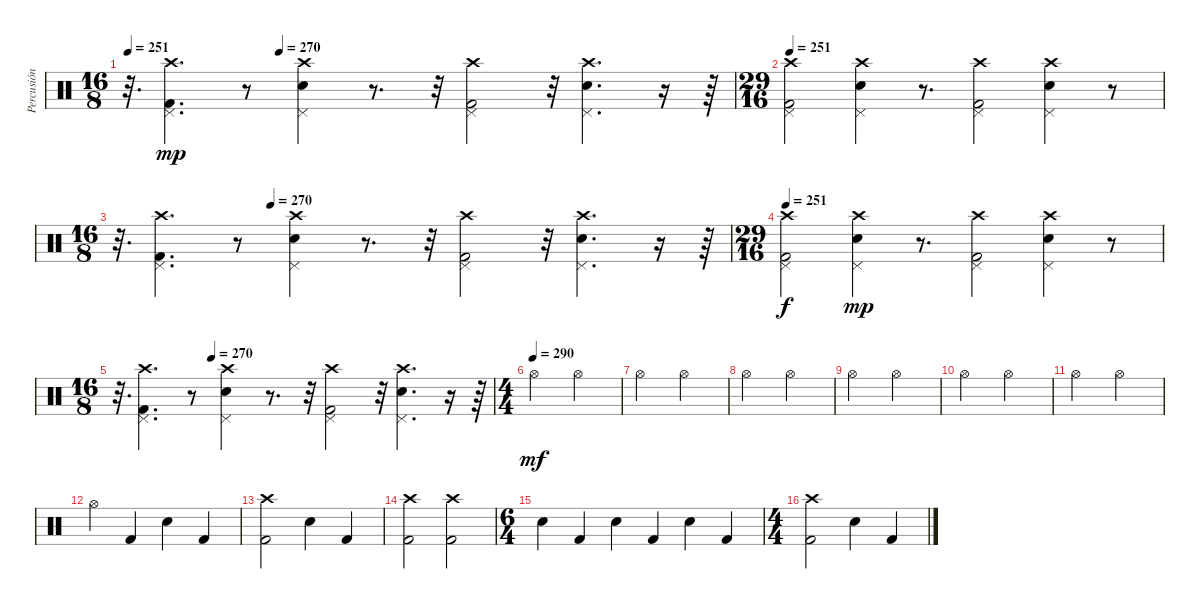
\track ("Percusión" "Percusión") {instrument percussion}
\staff {score}
\articulation defaults
\ts (16 8)
\tempo 251
\tempo (270 0.25)
\clef neutral
\ks c
r.32{d dy mp} ("Crash high (hit)" "Pedal Hi-Hat (hit)" "Kick (hit) 2").4{d} r.8 ("Crash high (hit)" "Pedal Hi-Hat (hit)" "Snare (hit) 2").4 r.8{d} r.32 ("Crash high (hit)" "Pedal Hi-Hat (hit)" "Kick (hit) 2").2 r.32 ("Crash high (hit)" "Pedal Hi-Hat (hit)" "Snare (hit) 2").4{d} r.16 r.64 |
\ts (29 16)
\tempo 251
("Crash high (hit)" "Pedal Hi-Hat (hit)" "Kick (hit) 2").2 ("Crash high (hit)" "Pedal Hi-Hat (hit)" "Snare (hit) 2").4 r.8{d} ("Crash high (hit)" "Pedal Hi-Hat (hit)" "Kick (hit) 2").2 ("Crash high (hit)" "Pedal Hi-Hat (hit)" "Snare (hit) 2").4 r.8 |
\ts (16 8)
\tempo (270 0.25)
r.32{d} ("Crash high (hit)" "Pedal Hi-Hat (hit)" "Kick (hit) 2").4{d} r.8 ("Crash high (hit)" "Pedal Hi-Hat (hit)" "Snare (hit) 2").4 r.8{d} r.32 ("Crash high (hit)" "Pedal Hi-Hat (hit)" "Kick (hit) 2").2 r.32 ("Crash high (hit)" "Pedal Hi-Hat (hit)" "Snare (hit) 2").4{d} r.16 r.64 |
\ts (29 16)
\tempo 251
("Crash high (hit)" "Pedal Hi-Hat (hit)" "Kick (hit) 2").2{dy f} ("Crash high (hit)" "Pedal Hi-Hat (hit)" "Snare (hit) 2").4{dy mp} r.8{d} ("Crash high (hit)" "Pedal Hi-Hat (hit)" "Kick (hit) 2").2 ("Crash high (hit)" "Pedal Hi-Hat (hit)" "Snare (hit) 2").4 r.8 |
\ts (16 8)
\tempo (270 0.25)
r.32{d} ("Crash high (hit)" "Pedal Hi-Hat (hit)" "Kick (hit) 2").4{d} r.8 ("Crash high (hit)" "Pedal Hi-Hat (hit)" "Snare (hit) 2").4 r.8{d} r.32 ("Crash high (hit)" "Pedal Hi-Hat (hit)" "Kick (hit) 2").2 r.32 ("Crash high (hit)" "Pedal Hi-Hat (hit)" "Snare (hit) 2").4{d} r.16 r.64 |
\ts (4 4)
\tempo (290)
"Hi-Hat (open)".2{dy mf} "Hi-Hat (open)".2 |
"Hi-Hat (open)".2 "Hi-Hat (open)".2 |
"Hi-Hat (open)".2 "Hi-Hat (open)".2 |
"Hi-Hat (open)".2 "Hi-Hat (open)".2 |
"Hi-Hat (open)".2 "Hi-Hat (open)".2 |
"Hi-Hat (open)".2 "Hi-Hat (open)".2 |
"Hi-Hat (open)".4 "Kick (hit) 2".4 "Snare (hit) 2".4 "Kick (hit) 2".4 |
("Crash high (hit)" "Kick (hit) 2").2 "Snare (hit) 2".4 "Kick (hit) 2".4 |
("Crash high (hit)" "Kick (hit) 2").2 ("Crash high (hit)" "Kick (hit) 2").2 |
\ts (6 4)
"Snare (hit) 2".4 "Kick (hit) 2".4 "Snare (hit) 2".4 "Kick (hit) 2".4 "Snare (hit) 2".4 "Kick (hit) 2".4 |
\ts (4 4)
("Crash high (hit)" "Kick (hit) 2").2 "Snare (hit) 2".4 "Kick (hit) 2".4
